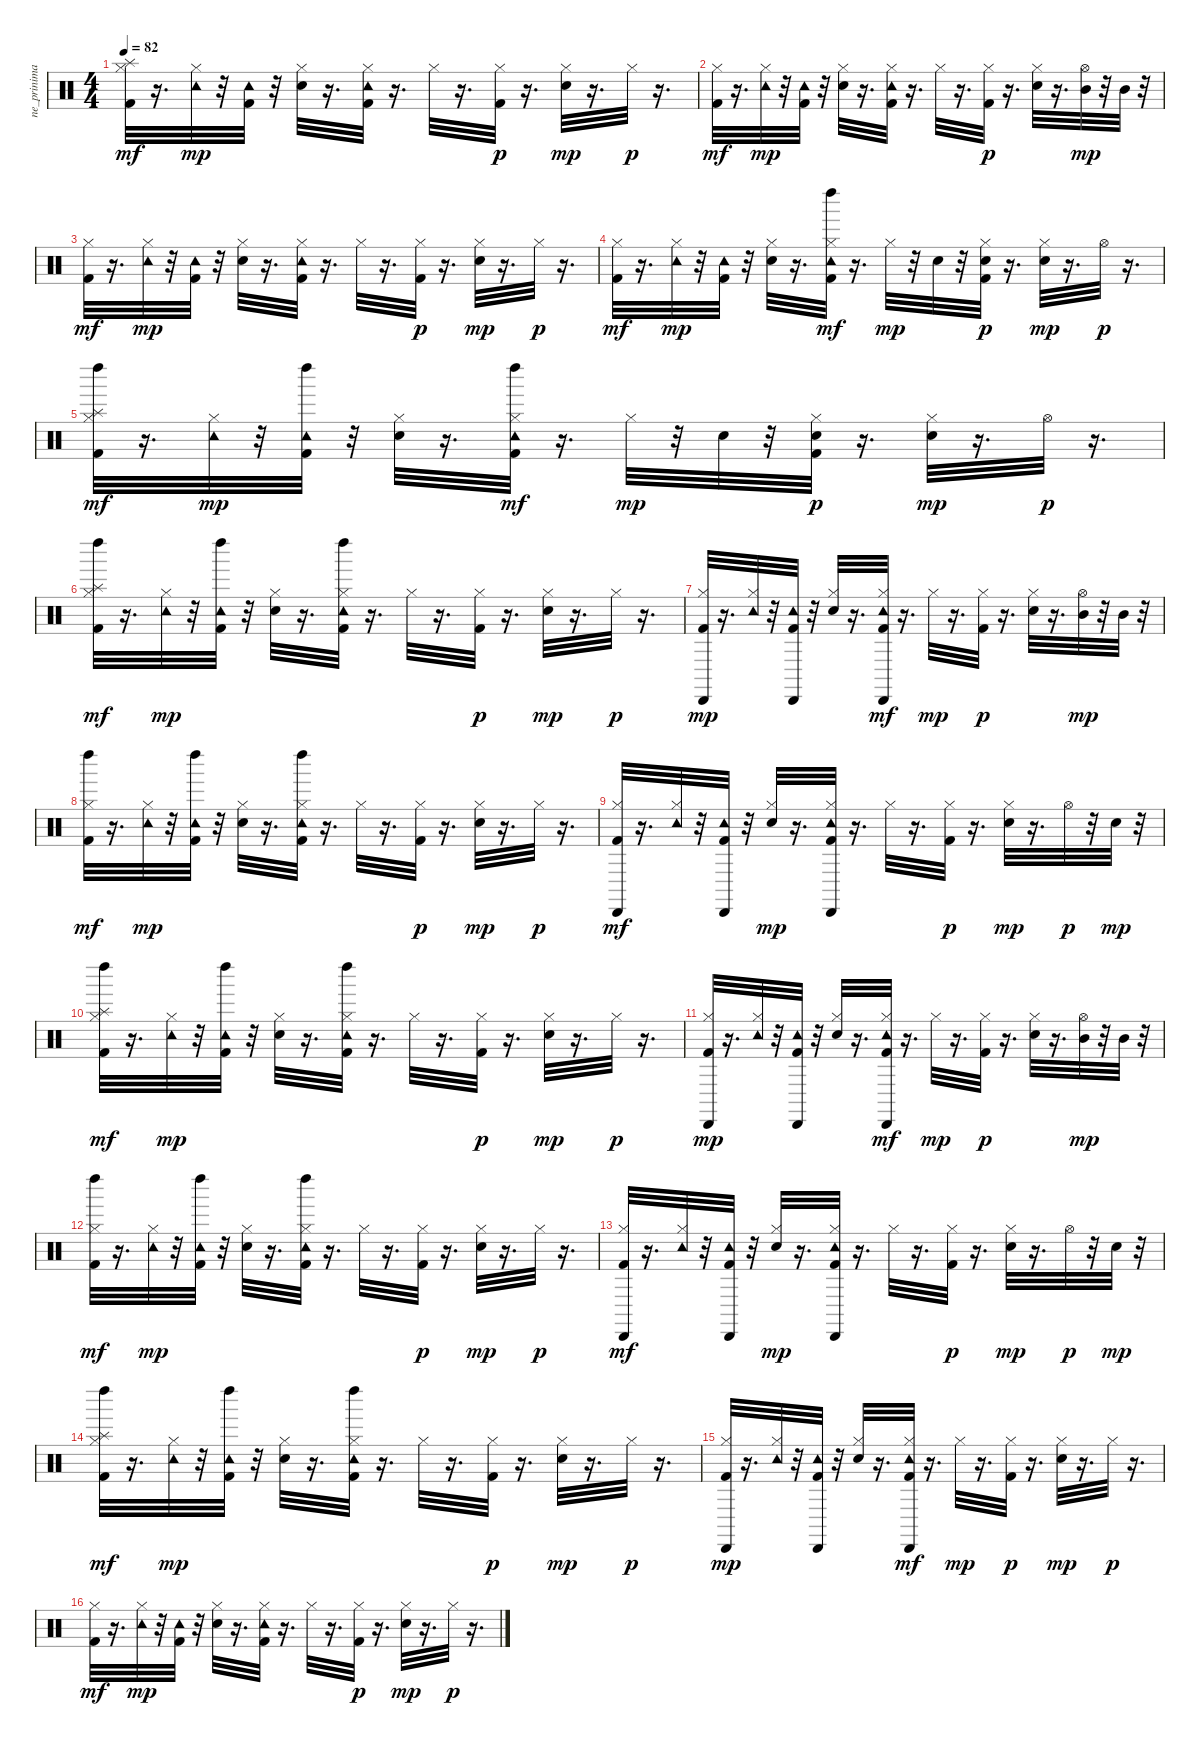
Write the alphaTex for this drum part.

\track ("ne_prinimai" "ne_prinima") {instrument percussion}
\staff {score}
\articulation defaults
\ts (4 4)
\tempo 82
\clef neutral
\ks c
("Kick (hit) 2" "Hi-Hat (closed)" "Splash (hit)").32{dy mf} r.16{d} ("Hi-Hat (closed)" "Tambourine (hit)").32{dy mp} r.32 ("Kick (hit) 2" "Tambourine (hit)").32 r.32 ("Electric Snare (hit)" "Hi-Hat (closed)").32 r.16{d} ("Kick (hit) 2" "Hi-Hat (closed)" "Tambourine (hit)").32 r.16{d} "Hi-Hat (closed)".32 r.16{d} ("Kick (hit) 2" "Hi-Hat (closed)").32{dy p} r.16{d} ("Electric Snare (hit)" "Hi-Hat (closed)").32{dy mp} r.16{d} "Hi-Hat (closed)".32{dy p} r.16{d} |
("Kick (hit) 2" "Hi-Hat (closed)").32{dy mf} r.16{d} ("Hi-Hat (closed)" "Tambourine (hit)").32{dy mp} r.32 ("Kick (hit) 2" "Tambourine (hit)").32 r.32 ("Electric Snare (hit)" "Hi-Hat (closed)").32 r.16{d} ("Kick (hit) 2" "Hi-Hat (closed)" "Tambourine (hit)").32 r.16{d} "Hi-Hat (closed)".32 r.16{d} ("Kick (hit) 2" "Hi-Hat (closed)").32{dy p} r.16{d} ("Electric Snare (hit)" "Hi-Hat (closed)").32 r.16{d} ("Hi-Hat (open)" "Mid Tom (hit)").32{dy mp} r.32 "Mid Tom (hit)".32 r.32 |
("Kick (hit) 2" "Hi-Hat (closed)").32{dy mf} r.16{d} ("Hi-Hat (closed)" "Tambourine (hit)").32{dy mp} r.32 ("Kick (hit) 2" "Tambourine (hit)").32 r.32 ("Electric Snare (hit)" "Hi-Hat (closed)").32 r.16{d} ("Kick (hit) 2" "Hi-Hat (closed)" "Tambourine (hit)").32 r.16{d} "Hi-Hat (closed)".32 r.16{d} ("Kick (hit) 2" "Hi-Hat (closed)").32{dy p} r.16{d} ("Electric Snare (hit)" "Hi-Hat (closed)").32{dy mp} r.16{d} "Hi-Hat (closed)".32{dy p} r.16{d} |
("Kick (hit) 2" "Hi-Hat (closed)").32{dy mf} r.16{d} ("Hi-Hat (closed)" "Tambourine (hit)").32{dy mp} r.32 ("Kick (hit) 2" "Tambourine (hit)").32 r.32 ("Snare (hit) 2" "Hi-Hat (closed)").32 r.16{d} ("Kick (hit) 2" "Hi-Hat (closed)" "Tambourine (hit)" "Left Maraca (hit)").32{dy mf} r.16{d} "Hi-Hat (closed)".32{dy mp} r.32 "Snare (hit) 2".32 r.32 ("Kick (hit) 2" "Snare (hit) 2" "Hi-Hat (closed)").32{dy p} r.16{d} ("Electric Snare (hit)" "Hi-Hat (closed)").32{dy mp} r.16{d} "Hi-Hat (open)".32{dy p} r.16{d} |
("Kick (hit) 2" "Hi-Hat (closed)" "Splash (hit)" "Left Maraca (hit)").32{dy mf} r.16{d} ("Hi-Hat (closed)" "Tambourine (hit)").32{dy mp} r.32 ("Kick (hit) 2" "Tambourine (hit)" "Left Maraca (hit)").32 r.32 ("Electric Snare (hit)" "Hi-Hat (closed)").32 r.16{d} ("Kick (hit) 2" "Hi-Hat (closed)" "Tambourine (hit)" "Left Maraca (hit)").32{dy mf} r.16{d} "Hi-Hat (closed)".32{dy mp} r.32 "Snare (hit) 2".32 r.32 ("Kick (hit) 2" "Snare (hit) 2" "Hi-Hat (closed)").32{dy p} r.16{d} ("Electric Snare (hit)" "Hi-Hat (closed)").32{dy mp} r.16{d} "Hi-Hat (open)".32{dy p} r.16{d} |
("Kick (hit) 2" "Hi-Hat (closed)" "Splash (hit)" "Left Maraca (hit)").32{dy mf} r.16{d} ("Hi-Hat (closed)" "Tambourine (hit)").32{dy mp} r.32 ("Kick (hit) 2" "Tambourine (hit)" "Left Maraca (hit)").32 r.32 ("Electric Snare (hit)" "Hi-Hat (closed)").32 r.16{d} ("Kick (hit) 2" "Hi-Hat (closed)" "Tambourine (hit)" "Left Maraca (hit)").32 r.16{d} "Hi-Hat (closed)".32 r.16{d} ("Kick (hit) 2" "Hi-Hat (closed)").32{dy p} r.16{d} ("Electric Snare (hit)" "Hi-Hat (closed)").32{dy mp} r.16{d} "Hi-Hat (closed)".32{dy p} r.16{d} |
("Kick (hit) 2" "Hi-Hat (closed)" "Cabasa (hit)").32{dy mp} r.16{d} ("Hi-Hat (closed)" "Tambourine (hit)").32 r.32 ("Kick (hit) 2" "Tambourine (hit)" "Cabasa (hit)").32 r.32 ("Electric Snare (hit)" "Hi-Hat (closed)").32 r.16{d} ("Kick (hit) 2" "Hi-Hat (closed)" "Tambourine (hit)" "Cabasa (hit)").32{dy mf} r.16{d} "Hi-Hat (closed)".32{dy mp} r.16{d} ("Kick (hit) 2" "Hi-Hat (closed)").32{dy p} r.16{d} ("Electric Snare (hit)" "Hi-Hat (closed)").32 r.16{d} ("Hi-Hat (open)" "Mid Tom (hit)").32{dy mp} r.32 "Mid Tom (hit)".32 r.32 |
("Kick (hit) 2" "Hi-Hat (closed)" "Left Maraca (hit)").32{dy mf} r.16{d} ("Hi-Hat (closed)" "Tambourine (hit)").32{dy mp} r.32 ("Kick (hit) 2" "Tambourine (hit)" "Left Maraca (hit)").32 r.32 ("Electric Snare (hit)" "Hi-Hat (closed)").32 r.16{d} ("Kick (hit) 2" "Hi-Hat (closed)" "Tambourine (hit)" "Left Maraca (hit)").32 r.16{d} "Hi-Hat (closed)".32 r.16{d} ("Kick (hit) 2" "Hi-Hat (closed)").32{dy p} r.16{d} ("Electric Snare (hit)" "Hi-Hat (closed)").32{dy mp} r.16{d} "Hi-Hat (closed)".32{dy p} r.16{d} |
("Kick (hit) 2" "Hi-Hat (closed)" "Cabasa (hit)").32{dy mf} r.16{d} ("Hi-Hat (closed)" "Tambourine (hit)").32 r.32 ("Kick (hit) 2" "Tambourine (hit)" "Cabasa (hit)").32 r.32 ("Electric Snare (hit)" "Hi-Hat (closed)").32{dy mp} r.16{d} ("Kick (hit) 2" "Hi-Hat (closed)" "Tambourine (hit)" "Cabasa (hit)").32 r.16{d} "Hi-Hat (closed)".32 r.16{d} ("Kick (hit) 2" "Hi-Hat (closed)").32{dy p} r.16{d} ("Electric Snare (hit)" "Hi-Hat (closed)").32{dy mp} r.16{d} "Hi-Hat (open)".32{dy p} r.32 "Electric Snare (hit)".32{dy mp} r.32 |
("Kick (hit) 2" "Hi-Hat (closed)" "Splash (hit)" "Left Maraca (hit)").32{dy mf} r.16{d} ("Hi-Hat (closed)" "Tambourine (hit)").32{dy mp} r.32 ("Kick (hit) 2" "Tambourine (hit)" "Left Maraca (hit)").32 r.32 ("Electric Snare (hit)" "Hi-Hat (closed)").32 r.16{d} ("Kick (hit) 2" "Hi-Hat (closed)" "Tambourine (hit)" "Left Maraca (hit)").32 r.16{d} "Hi-Hat (closed)".32 r.16{d} ("Kick (hit) 2" "Hi-Hat (closed)").32{dy p} r.16{d} ("Electric Snare (hit)" "Hi-Hat (closed)").32{dy mp} r.16{d} "Hi-Hat (closed)".32{dy p} r.16{d} |
("Kick (hit) 2" "Hi-Hat (closed)" "Cabasa (hit)").32{dy mp} r.16{d} ("Hi-Hat (closed)" "Tambourine (hit)").32 r.32 ("Kick (hit) 2" "Tambourine (hit)" "Cabasa (hit)").32 r.32 ("Electric Snare (hit)" "Hi-Hat (closed)").32 r.16{d} ("Kick (hit) 2" "Hi-Hat (closed)" "Tambourine (hit)" "Cabasa (hit)").32{dy mf} r.16{d} "Hi-Hat (closed)".32{dy mp} r.16{d} ("Kick (hit) 2" "Hi-Hat (closed)").32{dy p} r.16{d} ("Electric Snare (hit)" "Hi-Hat (closed)").32 r.16{d} ("Hi-Hat (open)" "Mid Tom (hit)").32{dy mp} r.32 "Mid Tom (hit)".32 r.32 |
("Kick (hit) 2" "Hi-Hat (closed)" "Left Maraca (hit)").32{dy mf} r.16{d} ("Hi-Hat (closed)" "Tambourine (hit)").32{dy mp} r.32 ("Kick (hit) 2" "Tambourine (hit)" "Left Maraca (hit)").32 r.32 ("Electric Snare (hit)" "Hi-Hat (closed)").32 r.16{d} ("Kick (hit) 2" "Hi-Hat (closed)" "Tambourine (hit)" "Left Maraca (hit)").32 r.16{d} "Hi-Hat (closed)".32 r.16{d} ("Kick (hit) 2" "Hi-Hat (closed)").32{dy p} r.16{d} ("Electric Snare (hit)" "Hi-Hat (closed)").32{dy mp} r.16{d} "Hi-Hat (closed)".32{dy p} r.16{d} |
("Kick (hit) 2" "Hi-Hat (closed)" "Cabasa (hit)").32{dy mf} r.16{d} ("Hi-Hat (closed)" "Tambourine (hit)").32 r.32 ("Kick (hit) 2" "Tambourine (hit)" "Cabasa (hit)").32 r.32 ("Electric Snare (hit)" "Hi-Hat (closed)").32{dy mp} r.16{d} ("Kick (hit) 2" "Hi-Hat (closed)" "Tambourine (hit)" "Cabasa (hit)").32 r.16{d} "Hi-Hat (closed)".32 r.16{d} ("Kick (hit) 2" "Hi-Hat (closed)").32{dy p} r.16{d} ("Electric Snare (hit)" "Hi-Hat (closed)").32{dy mp} r.16{d} "Hi-Hat (open)".32{dy p} r.32 "Electric Snare (hit)".32{dy mp} r.32 |
("Kick (hit) 2" "Hi-Hat (closed)" "Splash (hit)" "Left Maraca (hit)").32{dy mf} r.16{d} ("Hi-Hat (closed)" "Tambourine (hit)").32{dy mp} r.32 ("Kick (hit) 2" "Tambourine (hit)" "Left Maraca (hit)").32 r.32 ("Electric Snare (hit)" "Hi-Hat (closed)").32 r.16{d} ("Kick (hit) 2" "Hi-Hat (closed)" "Tambourine (hit)" "Left Maraca (hit)").32 r.16{d} "Hi-Hat (closed)".32 r.16{d} ("Kick (hit) 2" "Hi-Hat (closed)").32{dy p} r.16{d} ("Electric Snare (hit)" "Hi-Hat (closed)").32{dy mp} r.16{d} "Hi-Hat (closed)".32{dy p} r.16{d} |
("Kick (hit) 2" "Hi-Hat (closed)" "Cabasa (hit)").32{dy mp} r.16{d} ("Hi-Hat (closed)" "Tambourine (hit)").32 r.32 ("Kick (hit) 2" "Tambourine (hit)" "Cabasa (hit)").32 r.32 ("Electric Snare (hit)" "Hi-Hat (closed)").32 r.16{d} ("Kick (hit) 2" "Hi-Hat (closed)" "Tambourine (hit)" "Cabasa (hit)").32{dy mf} r.16{d} "Hi-Hat (closed)".32{dy mp} r.16{d} ("Kick (hit) 2" "Hi-Hat (closed)").32{dy p} r.16{d} ("Snare (hit) 2" "Hi-Hat (closed)").32{dy mp} r.16{d} "Hi-Hat (closed)".32{dy p} r.16{d} |
("Kick (hit) 2" "Hi-Hat (closed)").32{dy mf} r.16{d} ("Hi-Hat (closed)" "Tambourine (hit)").32{dy mp} r.32 ("Kick (hit) 2" "Tambourine (hit)").32 r.32 ("Snare (hit) 2" "Hi-Hat (closed)").32 r.16{d} ("Kick (hit) 2" "Hi-Hat (closed)" "Tambourine (hit)").32 r.16{d} "Hi-Hat (closed)".32 r.16{d} ("Kick (hit) 2" "Hi-Hat (closed)").32{dy p} r.16{d} ("Snare (hit) 2" "Hi-Hat (closed)").32{dy mp} r.16{d} "Hi-Hat (closed)".32{dy p} r.16{d}
